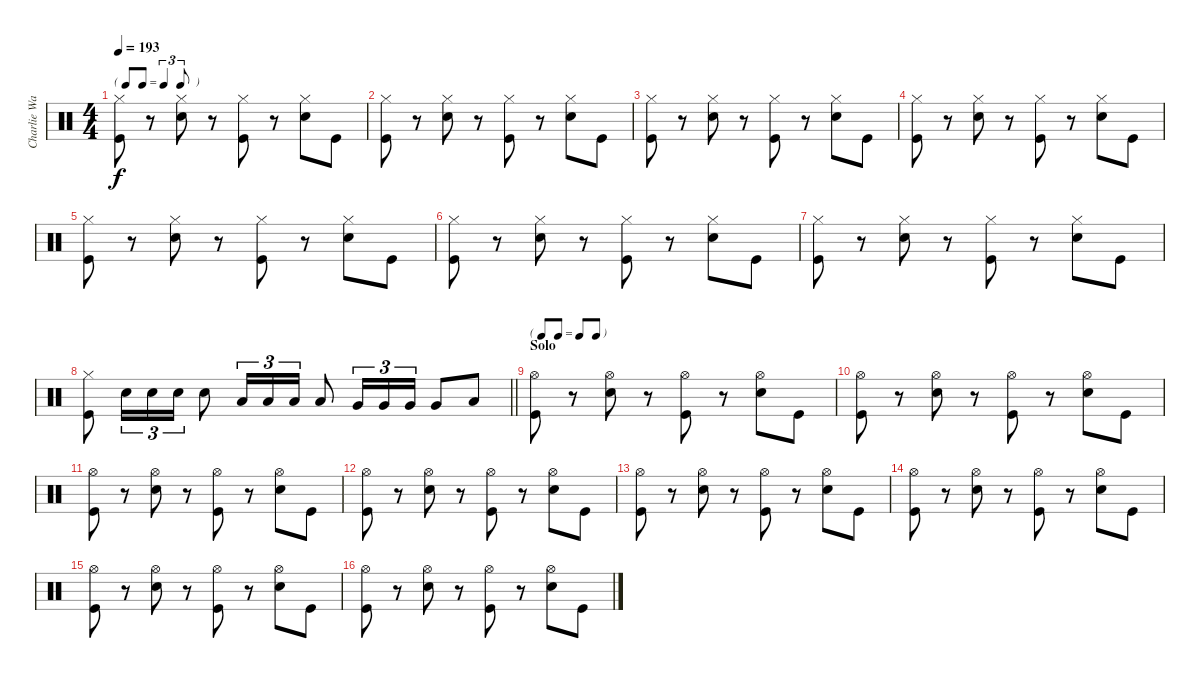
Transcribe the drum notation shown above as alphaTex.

\track ("Charlie Watts" "Charlie Wa") {instrument percussion}
\staff {score}
\articulation defaults
\ts (4 4)
\tf triplet8th
\tempo 193
\clef neutral
\ks c
("Hi-Hat (closed)" "Kick (hit)").8{dy f} r.8 ("Hi-Hat (closed)" "Snare (hit) 2").8 r.8 ("Hi-Hat (closed)" "Kick (hit)").8 r.8 ("Hi-Hat (closed)" "Snare (hit) 2").8 "Kick (hit)".8 |
("Hi-Hat (closed)" "Kick (hit)").8 r.8 ("Hi-Hat (closed)" "Snare (hit) 2").8 r.8 ("Hi-Hat (closed)" "Kick (hit)").8 r.8 ("Hi-Hat (closed)" "Snare (hit) 2").8 "Kick (hit)".8 |
("Hi-Hat (closed)" "Kick (hit)").8 r.8 ("Hi-Hat (closed)" "Snare (hit) 2").8 r.8 ("Hi-Hat (closed)" "Kick (hit)").8 r.8 ("Hi-Hat (closed)" "Snare (hit) 2").8 "Kick (hit)".8 |
("Hi-Hat (closed)" "Kick (hit)").8 r.8 ("Hi-Hat (closed)" "Snare (hit) 2").8 r.8 ("Hi-Hat (closed)" "Kick (hit)").8 r.8 ("Hi-Hat (closed)" "Snare (hit) 2").8 "Kick (hit)".8 |
("Hi-Hat (closed)" "Kick (hit)").8 r.8 ("Hi-Hat (closed)" "Snare (hit) 2").8 r.8 ("Hi-Hat (closed)" "Kick (hit)").8 r.8 ("Hi-Hat (closed)" "Snare (hit) 2").8 "Kick (hit)".8 |
("Hi-Hat (closed)" "Kick (hit)").8 r.8 ("Hi-Hat (closed)" "Snare (hit) 2").8 r.8 ("Hi-Hat (closed)" "Kick (hit)").8 r.8 ("Hi-Hat (closed)" "Snare (hit) 2").8 "Kick (hit)".8 |
("Hi-Hat (closed)" "Kick (hit)").8 r.8 ("Hi-Hat (closed)" "Snare (hit) 2").8 r.8 ("Hi-Hat (closed)" "Kick (hit)").8 r.8 ("Hi-Hat (closed)" "Snare (hit) 2").8 "Kick (hit)".8 |
\barLineRight lightlight
("Hi-Hat (closed)" "Kick (hit)").8 "Snare (hit) 2".16{tu (3 2)} "Snare (hit) 2".16{tu (3 2)} "Snare (hit) 2".16{tu (3 2)} "Snare (hit) 2".8 "Low Tom (hit)".16{tu (3 2)} "Low Tom (hit)".16{tu (3 2)} "Low Tom (hit)".16{tu (3 2)} "Low Tom (hit)".8 "Very Low Tom (hit)".16{tu (3 2)} "Very Low Tom (hit)".16{tu (3 2)} "Very Low Tom (hit)".16{tu (3 2)} "Very Low Tom (hit)".8 "Low Floor Tom (hit)".8 |
\tf none
\section ("" "Solo")
("Hi-Hat (open)" "Kick (hit)").8 r.8 ("Hi-Hat (open)" "Snare (hit) 2").8 r.8 ("Hi-Hat (open)" "Kick (hit)").8 r.8 ("Hi-Hat (open)" "Snare (hit) 2").8 "Kick (hit)".8 |
("Hi-Hat (open)" "Kick (hit)").8 r.8 ("Hi-Hat (open)" "Snare (hit) 2").8 r.8 ("Hi-Hat (open)" "Kick (hit)").8 r.8 ("Hi-Hat (open)" "Snare (hit) 2").8 "Kick (hit)".8 |
("Hi-Hat (open)" "Kick (hit)").8 r.8 ("Hi-Hat (open)" "Snare (hit) 2").8 r.8 ("Hi-Hat (open)" "Kick (hit)").8 r.8 ("Hi-Hat (open)" "Snare (hit) 2").8 "Kick (hit)".8 |
("Hi-Hat (open)" "Kick (hit)").8 r.8 ("Hi-Hat (open)" "Snare (hit) 2").8 r.8 ("Hi-Hat (open)" "Kick (hit)").8 r.8 ("Hi-Hat (open)" "Snare (hit) 2").8 "Kick (hit)".8 |
("Hi-Hat (open)" "Kick (hit)").8 r.8 ("Hi-Hat (open)" "Snare (hit) 2").8 r.8 ("Hi-Hat (open)" "Kick (hit)").8 r.8 ("Hi-Hat (open)" "Snare (hit) 2").8 "Kick (hit)".8 |
("Hi-Hat (open)" "Kick (hit)").8 r.8 ("Hi-Hat (open)" "Snare (hit) 2").8 r.8 ("Hi-Hat (open)" "Kick (hit)").8 r.8 ("Hi-Hat (open)" "Snare (hit) 2").8 "Kick (hit)".8 |
("Hi-Hat (open)" "Kick (hit)").8 r.8 ("Hi-Hat (open)" "Snare (hit) 2").8 r.8 ("Hi-Hat (open)" "Kick (hit)").8 r.8 ("Hi-Hat (open)" "Snare (hit) 2").8 "Kick (hit)".8 |
("Hi-Hat (open)" "Kick (hit)").8 r.8 ("Hi-Hat (open)" "Snare (hit) 2").8 r.8 ("Hi-Hat (open)" "Kick (hit)").8 r.8 ("Hi-Hat (open)" "Snare (hit) 2").8 "Kick (hit)".8
